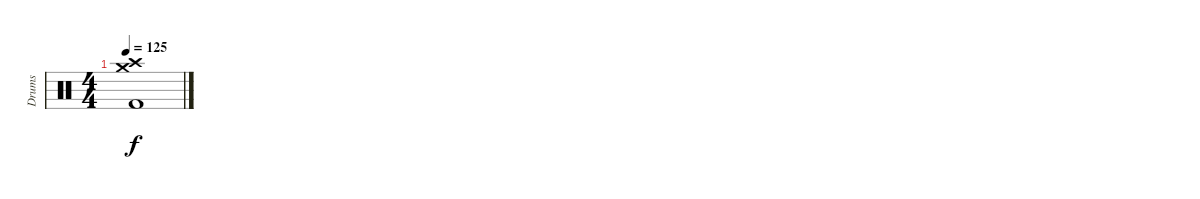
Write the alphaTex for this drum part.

\track ("Drums" "Drums") {instrument percussion}
\staff {score}
\articulation defaults
\ts (4 4)
\tempo 125
\clef neutral
\ks c
("Crash medium (hit)" "Crash high (hit)" "Kick (hit) 2").1{dy f}
